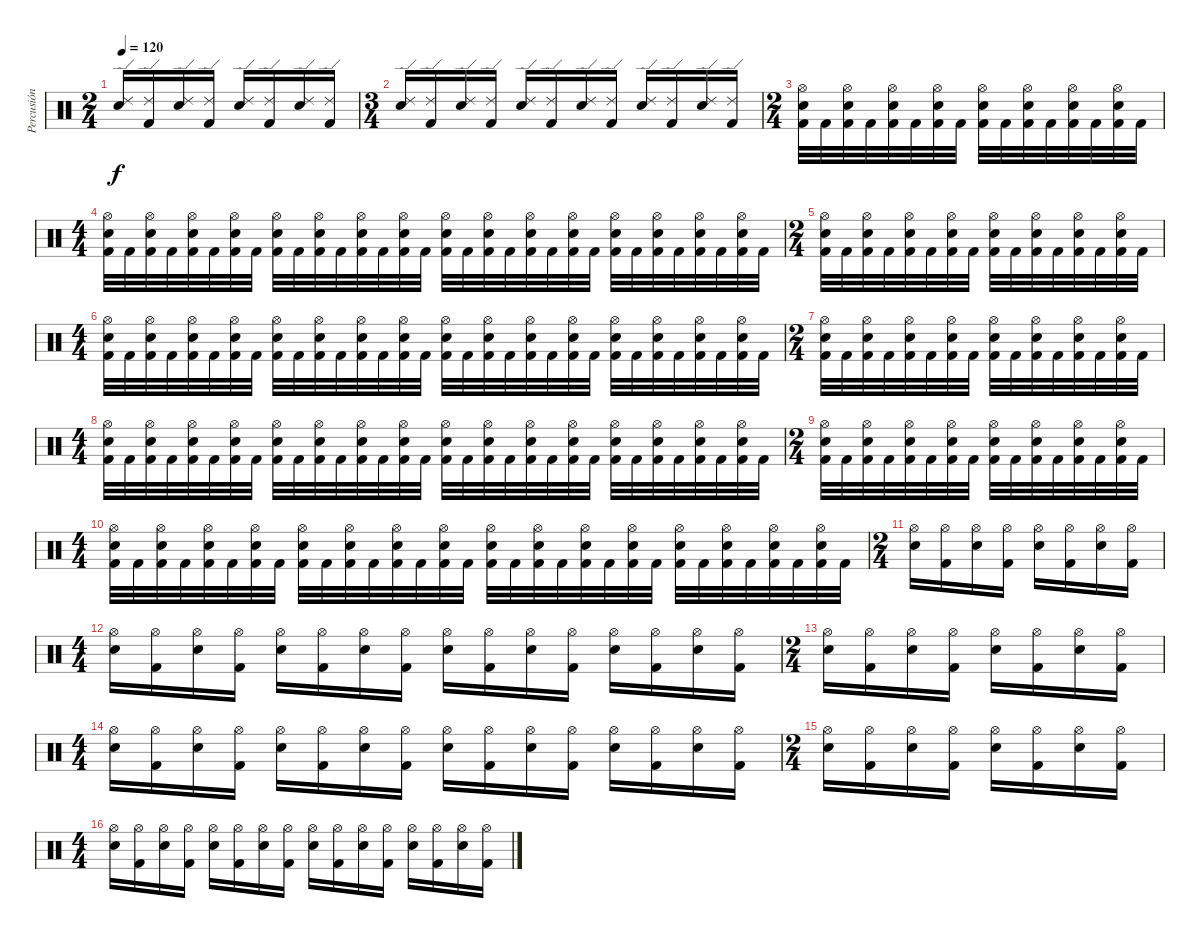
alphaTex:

\track ("Percusión" "Percusión") {instrument percussion}
\staff {score}
\articulation defaults
\ts (2 4)
\tempo 120
\clef neutral
\ks c
("Ride (edge) 2" "Snare (hit) 2").16{dy f} ("Ride (edge) 2" "Kick (hit) 2").16 ("Ride (edge) 2" "Snare (hit) 2").16 ("Ride (edge) 2" "Kick (hit) 2").16 ("Ride (edge) 2" "Snare (hit) 2").16 ("Ride (edge) 2" "Kick (hit) 2").16 ("Ride (edge) 2" "Snare (hit) 2").16 ("Ride (edge) 2" "Kick (hit) 2").16 |
\ts (3 4)
("Snare (hit) 2" "Ride (edge) 2").16 ("Kick (hit) 2" "Ride (edge) 2").16 ("Snare (hit) 2" "Ride (edge) 2").16 ("Kick (hit) 2" "Ride (edge) 2").16 ("Snare (hit) 2" "Ride (edge) 2").16 ("Kick (hit) 2" "Ride (edge) 2").16 ("Snare (hit) 2" "Ride (edge) 2").16 ("Kick (hit) 2" "Ride (edge) 2").16 ("Snare (hit) 2" "Ride (edge) 2").16 ("Kick (hit) 2" "Ride (edge) 2").16 ("Snare (hit) 2" "Ride (edge) 2").16 ("Kick (hit) 2" "Ride (edge) 2").16 |
\ts (2 4)
("Kick (hit) 2" "Snare (hit) 2" "Hi-Hat (open)").32 "Kick (hit) 2".32 ("Kick (hit) 2" "Snare (hit) 2" "Hi-Hat (open)").32 "Kick (hit) 2".32 ("Kick (hit) 2" "Snare (hit) 2" "Hi-Hat (open)").32 "Kick (hit) 2".32 ("Kick (hit) 2" "Snare (hit) 2" "Hi-Hat (open)").32 "Kick (hit) 2".32 ("Kick (hit) 2" "Snare (hit) 2" "Hi-Hat (open)").32 "Kick (hit) 2".32 ("Kick (hit) 2" "Snare (hit) 2" "Hi-Hat (open)").32 "Kick (hit) 2".32 ("Kick (hit) 2" "Snare (hit) 2" "Hi-Hat (open)").32 "Kick (hit) 2".32 ("Kick (hit) 2" "Snare (hit) 2" "Hi-Hat (open)").32 "Kick (hit) 2".32 |
\ts (4 4)
("Kick (hit) 2" "Snare (hit) 2" "Hi-Hat (open)").32 "Kick (hit) 2".32 ("Kick (hit) 2" "Snare (hit) 2" "Hi-Hat (open)").32 "Kick (hit) 2".32 ("Kick (hit) 2" "Snare (hit) 2" "Hi-Hat (open)").32 "Kick (hit) 2".32 ("Kick (hit) 2" "Snare (hit) 2" "Hi-Hat (open)").32 "Kick (hit) 2".32 ("Kick (hit) 2" "Snare (hit) 2" "Hi-Hat (open)").32 "Kick (hit) 2".32 ("Kick (hit) 2" "Snare (hit) 2" "Hi-Hat (open)").32 "Kick (hit) 2".32 ("Kick (hit) 2" "Snare (hit) 2" "Hi-Hat (open)").32 "Kick (hit) 2".32 ("Kick (hit) 2" "Snare (hit) 2" "Hi-Hat (open)").32 "Kick (hit) 2".32 ("Kick (hit) 2" "Snare (hit) 2" "Hi-Hat (open)").32 "Kick (hit) 2".32 ("Kick (hit) 2" "Snare (hit) 2" "Hi-Hat (open)").32 "Kick (hit) 2".32 ("Kick (hit) 2" "Snare (hit) 2" "Hi-Hat (open)").32 "Kick (hit) 2".32 ("Kick (hit) 2" "Snare (hit) 2" "Hi-Hat (open)").32 "Kick (hit) 2".32 ("Kick (hit) 2" "Snare (hit) 2" "Hi-Hat (open)").32 "Kick (hit) 2".32 ("Kick (hit) 2" "Snare (hit) 2" "Hi-Hat (open)").32 "Kick (hit) 2".32 ("Kick (hit) 2" "Snare (hit) 2" "Hi-Hat (open)").32 "Kick (hit) 2".32 ("Kick (hit) 2" "Snare (hit) 2" "Hi-Hat (open)").32 "Kick (hit) 2".32 |
\ts (2 4)
("Kick (hit) 2" "Snare (hit) 2" "Hi-Hat (open)").32 "Kick (hit) 2".32 ("Kick (hit) 2" "Snare (hit) 2" "Hi-Hat (open)").32 "Kick (hit) 2".32 ("Kick (hit) 2" "Snare (hit) 2" "Hi-Hat (open)").32 "Kick (hit) 2".32 ("Kick (hit) 2" "Snare (hit) 2" "Hi-Hat (open)").32 "Kick (hit) 2".32 ("Kick (hit) 2" "Snare (hit) 2" "Hi-Hat (open)").32 "Kick (hit) 2".32 ("Kick (hit) 2" "Snare (hit) 2" "Hi-Hat (open)").32 "Kick (hit) 2".32 ("Kick (hit) 2" "Snare (hit) 2" "Hi-Hat (open)").32 "Kick (hit) 2".32 ("Kick (hit) 2" "Snare (hit) 2" "Hi-Hat (open)").32 "Kick (hit) 2".32 |
\ts (4 4)
("Kick (hit) 2" "Snare (hit) 2" "Hi-Hat (open)").32 "Kick (hit) 2".32 ("Kick (hit) 2" "Snare (hit) 2" "Hi-Hat (open)").32 "Kick (hit) 2".32 ("Kick (hit) 2" "Snare (hit) 2" "Hi-Hat (open)").32 "Kick (hit) 2".32 ("Kick (hit) 2" "Snare (hit) 2" "Hi-Hat (open)").32 "Kick (hit) 2".32 ("Kick (hit) 2" "Snare (hit) 2" "Hi-Hat (open)").32 "Kick (hit) 2".32 ("Kick (hit) 2" "Snare (hit) 2" "Hi-Hat (open)").32 "Kick (hit) 2".32 ("Kick (hit) 2" "Snare (hit) 2" "Hi-Hat (open)").32 "Kick (hit) 2".32 ("Kick (hit) 2" "Snare (hit) 2" "Hi-Hat (open)").32 "Kick (hit) 2".32 ("Kick (hit) 2" "Snare (hit) 2" "Hi-Hat (open)").32 "Kick (hit) 2".32 ("Kick (hit) 2" "Snare (hit) 2" "Hi-Hat (open)").32 "Kick (hit) 2".32 ("Kick (hit) 2" "Snare (hit) 2" "Hi-Hat (open)").32 "Kick (hit) 2".32 ("Kick (hit) 2" "Snare (hit) 2" "Hi-Hat (open)").32 "Kick (hit) 2".32 ("Kick (hit) 2" "Snare (hit) 2" "Hi-Hat (open)").32 "Kick (hit) 2".32 ("Kick (hit) 2" "Snare (hit) 2" "Hi-Hat (open)").32 "Kick (hit) 2".32 ("Kick (hit) 2" "Snare (hit) 2" "Hi-Hat (open)").32 "Kick (hit) 2".32 ("Kick (hit) 2" "Snare (hit) 2" "Hi-Hat (open)").32 "Kick (hit) 2".32 |
\ts (2 4)
("Kick (hit) 2" "Snare (hit) 2" "Hi-Hat (open)").32 "Kick (hit) 2".32 ("Kick (hit) 2" "Snare (hit) 2" "Hi-Hat (open)").32 "Kick (hit) 2".32 ("Kick (hit) 2" "Snare (hit) 2" "Hi-Hat (open)").32 "Kick (hit) 2".32 ("Kick (hit) 2" "Snare (hit) 2" "Hi-Hat (open)").32 "Kick (hit) 2".32 ("Kick (hit) 2" "Snare (hit) 2" "Hi-Hat (open)").32 "Kick (hit) 2".32 ("Kick (hit) 2" "Snare (hit) 2" "Hi-Hat (open)").32 "Kick (hit) 2".32 ("Kick (hit) 2" "Snare (hit) 2" "Hi-Hat (open)").32 "Kick (hit) 2".32 ("Kick (hit) 2" "Snare (hit) 2" "Hi-Hat (open)").32 "Kick (hit) 2".32 |
\ts (4 4)
("Kick (hit) 2" "Snare (hit) 2" "Hi-Hat (open)").32 "Kick (hit) 2".32 ("Kick (hit) 2" "Snare (hit) 2" "Hi-Hat (open)").32 "Kick (hit) 2".32 ("Kick (hit) 2" "Snare (hit) 2" "Hi-Hat (open)").32 "Kick (hit) 2".32 ("Kick (hit) 2" "Snare (hit) 2" "Hi-Hat (open)").32 "Kick (hit) 2".32 ("Kick (hit) 2" "Snare (hit) 2" "Hi-Hat (open)").32 "Kick (hit) 2".32 ("Kick (hit) 2" "Snare (hit) 2" "Hi-Hat (open)").32 "Kick (hit) 2".32 ("Kick (hit) 2" "Snare (hit) 2" "Hi-Hat (open)").32 "Kick (hit) 2".32 ("Kick (hit) 2" "Snare (hit) 2" "Hi-Hat (open)").32 "Kick (hit) 2".32 ("Kick (hit) 2" "Snare (hit) 2" "Hi-Hat (open)").32 "Kick (hit) 2".32 ("Kick (hit) 2" "Snare (hit) 2" "Hi-Hat (open)").32 "Kick (hit) 2".32 ("Kick (hit) 2" "Snare (hit) 2" "Hi-Hat (open)").32 "Kick (hit) 2".32 ("Kick (hit) 2" "Snare (hit) 2" "Hi-Hat (open)").32 "Kick (hit) 2".32 ("Kick (hit) 2" "Snare (hit) 2" "Hi-Hat (open)").32 "Kick (hit) 2".32 ("Kick (hit) 2" "Snare (hit) 2" "Hi-Hat (open)").32 "Kick (hit) 2".32 ("Kick (hit) 2" "Snare (hit) 2" "Hi-Hat (open)").32 "Kick (hit) 2".32 ("Kick (hit) 2" "Snare (hit) 2" "Hi-Hat (open)").32 "Kick (hit) 2".32 |
\ts (2 4)
("Kick (hit) 2" "Snare (hit) 2" "Hi-Hat (open)").32 "Kick (hit) 2".32 ("Kick (hit) 2" "Snare (hit) 2" "Hi-Hat (open)").32 "Kick (hit) 2".32 ("Kick (hit) 2" "Snare (hit) 2" "Hi-Hat (open)").32 "Kick (hit) 2".32 ("Kick (hit) 2" "Snare (hit) 2" "Hi-Hat (open)").32 "Kick (hit) 2".32 ("Kick (hit) 2" "Snare (hit) 2" "Hi-Hat (open)").32 "Kick (hit) 2".32 ("Kick (hit) 2" "Snare (hit) 2" "Hi-Hat (open)").32 "Kick (hit) 2".32 ("Kick (hit) 2" "Snare (hit) 2" "Hi-Hat (open)").32 "Kick (hit) 2".32 ("Kick (hit) 2" "Snare (hit) 2" "Hi-Hat (open)").32 "Kick (hit) 2".32 |
\ts (4 4)
("Kick (hit) 2" "Snare (hit) 2" "Hi-Hat (open)").32 "Kick (hit) 2".32 ("Kick (hit) 2" "Snare (hit) 2" "Hi-Hat (open)").32 "Kick (hit) 2".32 ("Kick (hit) 2" "Snare (hit) 2" "Hi-Hat (open)").32 "Kick (hit) 2".32 ("Kick (hit) 2" "Snare (hit) 2" "Hi-Hat (open)").32 "Kick (hit) 2".32 ("Kick (hit) 2" "Snare (hit) 2" "Hi-Hat (open)").32 "Kick (hit) 2".32 ("Kick (hit) 2" "Snare (hit) 2" "Hi-Hat (open)").32 "Kick (hit) 2".32 ("Kick (hit) 2" "Snare (hit) 2" "Hi-Hat (open)").32 "Kick (hit) 2".32 ("Kick (hit) 2" "Snare (hit) 2" "Hi-Hat (open)").32 "Kick (hit) 2".32 ("Kick (hit) 2" "Snare (hit) 2" "Hi-Hat (open)").32 "Kick (hit) 2".32 ("Kick (hit) 2" "Snare (hit) 2" "Hi-Hat (open)").32 "Kick (hit) 2".32 ("Kick (hit) 2" "Snare (hit) 2" "Hi-Hat (open)").32 "Kick (hit) 2".32 ("Kick (hit) 2" "Snare (hit) 2" "Hi-Hat (open)").32 "Kick (hit) 2".32 ("Kick (hit) 2" "Snare (hit) 2" "Hi-Hat (open)").32 "Kick (hit) 2".32 ("Kick (hit) 2" "Snare (hit) 2" "Hi-Hat (open)").32 "Kick (hit) 2".32 ("Kick (hit) 2" "Snare (hit) 2" "Hi-Hat (open)").32 "Kick (hit) 2".32 ("Kick (hit) 2" "Snare (hit) 2" "Hi-Hat (open)").32 "Kick (hit) 2".32 |
\ts (2 4)
("Hi-Hat (open)" "Snare (hit) 2").16 ("Hi-Hat (open)" "Kick (hit) 2").16 ("Hi-Hat (open)" "Snare (hit) 2").16 ("Hi-Hat (open)" "Kick (hit) 2").16 ("Hi-Hat (open)" "Snare (hit) 2").16 ("Hi-Hat (open)" "Kick (hit) 2").16 ("Hi-Hat (open)" "Snare (hit) 2").16 ("Hi-Hat (open)" "Kick (hit) 2").16 |
\ts (4 4)
("Snare (hit) 2" "Hi-Hat (open)").16 ("Kick (hit) 2" "Hi-Hat (open)").16 ("Snare (hit) 2" "Hi-Hat (open)").16 ("Kick (hit) 2" "Hi-Hat (open)").16 ("Snare (hit) 2" "Hi-Hat (open)").16 ("Kick (hit) 2" "Hi-Hat (open)").16 ("Snare (hit) 2" "Hi-Hat (open)").16 ("Kick (hit) 2" "Hi-Hat (open)").16 ("Snare (hit) 2" "Hi-Hat (open)").16 ("Kick (hit) 2" "Hi-Hat (open)").16 ("Snare (hit) 2" "Hi-Hat (open)").16 ("Kick (hit) 2" "Hi-Hat (open)").16 ("Snare (hit) 2" "Hi-Hat (open)").16 ("Kick (hit) 2" "Hi-Hat (open)").16 ("Snare (hit) 2" "Hi-Hat (open)").16 ("Kick (hit) 2" "Hi-Hat (open)").16 |
\ts (2 4)
("Hi-Hat (open)" "Snare (hit) 2").16 ("Hi-Hat (open)" "Kick (hit) 2").16 ("Hi-Hat (open)" "Snare (hit) 2").16 ("Hi-Hat (open)" "Kick (hit) 2").16 ("Hi-Hat (open)" "Snare (hit) 2").16 ("Hi-Hat (open)" "Kick (hit) 2").16 ("Hi-Hat (open)" "Snare (hit) 2").16 ("Hi-Hat (open)" "Kick (hit) 2").16 |
\ts (4 4)
("Snare (hit) 2" "Hi-Hat (open)").16 ("Kick (hit) 2" "Hi-Hat (open)").16 ("Snare (hit) 2" "Hi-Hat (open)").16 ("Kick (hit) 2" "Hi-Hat (open)").16 ("Snare (hit) 2" "Hi-Hat (open)").16 ("Kick (hit) 2" "Hi-Hat (open)").16 ("Snare (hit) 2" "Hi-Hat (open)").16 ("Kick (hit) 2" "Hi-Hat (open)").16 ("Snare (hit) 2" "Hi-Hat (open)").16 ("Kick (hit) 2" "Hi-Hat (open)").16 ("Snare (hit) 2" "Hi-Hat (open)").16 ("Kick (hit) 2" "Hi-Hat (open)").16 ("Snare (hit) 2" "Hi-Hat (open)").16 ("Kick (hit) 2" "Hi-Hat (open)").16 ("Snare (hit) 2" "Hi-Hat (open)").16 ("Kick (hit) 2" "Hi-Hat (open)").16 |
\ts (2 4)
("Hi-Hat (open)" "Snare (hit) 2").16 ("Hi-Hat (open)" "Kick (hit) 2").16 ("Hi-Hat (open)" "Snare (hit) 2").16 ("Hi-Hat (open)" "Kick (hit) 2").16 ("Hi-Hat (open)" "Snare (hit) 2").16 ("Hi-Hat (open)" "Kick (hit) 2").16 ("Hi-Hat (open)" "Snare (hit) 2").16 ("Hi-Hat (open)" "Kick (hit) 2").16 |
\ts (4 4)
("Snare (hit) 2" "Hi-Hat (open)").16 ("Kick (hit) 2" "Hi-Hat (open)").16 ("Snare (hit) 2" "Hi-Hat (open)").16 ("Kick (hit) 2" "Hi-Hat (open)").16 ("Snare (hit) 2" "Hi-Hat (open)").16 ("Kick (hit) 2" "Hi-Hat (open)").16 ("Snare (hit) 2" "Hi-Hat (open)").16 ("Kick (hit) 2" "Hi-Hat (open)").16 ("Snare (hit) 2" "Hi-Hat (open)").16 ("Kick (hit) 2" "Hi-Hat (open)").16 ("Snare (hit) 2" "Hi-Hat (open)").16 ("Kick (hit) 2" "Hi-Hat (open)").16 ("Snare (hit) 2" "Hi-Hat (open)").16 ("Kick (hit) 2" "Hi-Hat (open)").16 ("Snare (hit) 2" "Hi-Hat (open)").16 ("Kick (hit) 2" "Hi-Hat (open)").16
